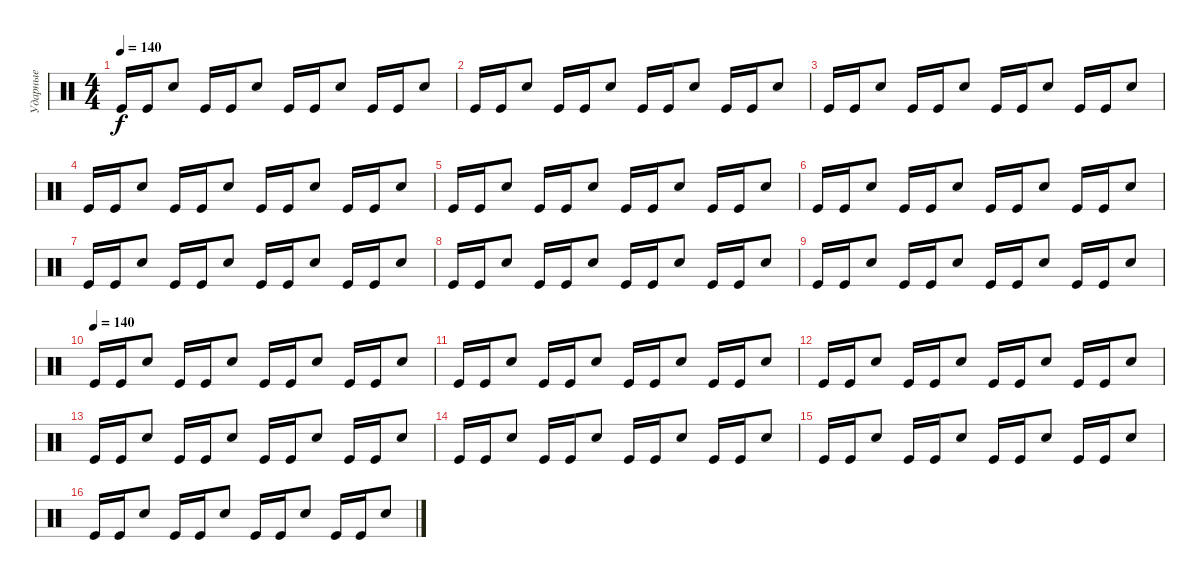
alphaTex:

\track ("Ударные" "Ударные") {instrument percussion}
\staff {score}
\articulation defaults
\ts (4 4)
\tempo 140
\clef neutral
\ks c "Kick (hit)".16{dy f} "Kick (hit)".16 "Electric Snare (hit)".8 "Kick (hit)".16 "Kick (hit)".16 "Electric Snare (hit)".8 "Kick (hit)".16 "Kick (hit)".16 "Electric Snare (hit)".8 "Kick (hit)".16 "Kick (hit)".16 "Electric Snare (hit)".8
|
"Kick (hit)".16 "Kick (hit)".16 "Electric Snare (hit)".8 "Kick (hit)".16 "Kick (hit)".16 "Electric Snare (hit)".8 "Kick (hit)".16 "Kick (hit)".16 "Electric Snare (hit)".8 "Kick (hit)".16 "Kick (hit)".16 "Electric Snare (hit)".8 |
"Kick (hit)".16 "Kick (hit)".16 "Electric Snare (hit)".8 "Kick (hit)".16 "Kick (hit)".16 "Electric Snare (hit)".8 "Kick (hit)".16 "Kick (hit)".16 "Electric Snare (hit)".8 "Kick (hit)".16 "Kick (hit)".16 "Electric Snare (hit)".8 |
"Kick (hit)".16 "Kick (hit)".16 "Electric Snare (hit)".8 "Kick (hit)".16 "Kick (hit)".16 "Electric Snare (hit)".8 "Kick (hit)".16 "Kick (hit)".16 "Electric Snare (hit)".8 "Kick (hit)".16 "Kick (hit)".16 "Electric Snare (hit)".8 |
"Kick (hit)".16 "Kick (hit)".16 "Electric Snare (hit)".8 "Kick (hit)".16 "Kick (hit)".16 "Electric Snare (hit)".8 "Kick (hit)".16 "Kick (hit)".16 "Electric Snare (hit)".8 "Kick (hit)".16 "Kick (hit)".16 "Electric Snare (hit)".8 |
"Kick (hit)".16 "Kick (hit)".16 "Electric Snare (hit)".8 "Kick (hit)".16 "Kick (hit)".16 "Electric Snare (hit)".8 "Kick (hit)".16 "Kick (hit)".16 "Electric Snare (hit)".8 "Kick (hit)".16 "Kick (hit)".16 "Electric Snare (hit)".8 |
"Kick (hit)".16 "Kick (hit)".16 "Electric Snare (hit)".8 "Kick (hit)".16 "Kick (hit)".16 "Electric Snare (hit)".8 "Kick (hit)".16 "Kick (hit)".16 "Electric Snare (hit)".8 "Kick (hit)".16 "Kick (hit)".16 "Electric Snare (hit)".8 |
"Kick (hit)".16 "Kick (hit)".16 "Electric Snare (hit)".8 "Kick (hit)".16 "Kick (hit)".16 "Electric Snare (hit)".8 "Kick (hit)".16 "Kick (hit)".16 "Electric Snare (hit)".8 "Kick (hit)".16 "Kick (hit)".16 "Electric Snare (hit)".8 |
"Kick (hit)".16 "Kick (hit)".16 "Electric Snare (hit)".8 "Kick (hit)".16 "Kick (hit)".16 "Electric Snare (hit)".8 "Kick (hit)".16 "Kick (hit)".16 "Electric Snare (hit)".8 "Kick (hit)".16 "Kick (hit)".16 "Electric Snare (hit)".8 |
\tempo (140)
"Kick (hit)".16 "Kick (hit)".16 "Electric Snare (hit)".8 "Kick (hit)".16 "Kick (hit)".16 "Electric Snare (hit)".8 "Kick (hit)".16 "Kick (hit)".16 "Electric Snare (hit)".8 "Kick (hit)".16 "Kick (hit)".16 "Electric Snare (hit)".8 |
"Kick (hit)".16 "Kick (hit)".16 "Electric Snare (hit)".8 "Kick (hit)".16 "Kick (hit)".16 "Electric Snare (hit)".8 "Kick (hit)".16 "Kick (hit)".16 "Electric Snare (hit)".8 "Kick (hit)".16 "Kick (hit)".16 "Electric Snare (hit)".8 |
"Kick (hit)".16 "Kick (hit)".16 "Electric Snare (hit)".8 "Kick (hit)".16 "Kick (hit)".16 "Electric Snare (hit)".8 "Kick (hit)".16 "Kick (hit)".16 "Electric Snare (hit)".8 "Kick (hit)".16 "Kick (hit)".16 "Electric Snare (hit)".8 |
"Kick (hit)".16 "Kick (hit)".16 "Electric Snare (hit)".8 "Kick (hit)".16 "Kick (hit)".16 "Electric Snare (hit)".8 "Kick (hit)".16 "Kick (hit)".16 "Electric Snare (hit)".8 "Kick (hit)".16 "Kick (hit)".16 "Electric Snare (hit)".8 |
"Kick (hit)".16 "Kick (hit)".16 "Electric Snare (hit)".8 "Kick (hit)".16 "Kick (hit)".16 "Electric Snare (hit)".8 "Kick (hit)".16 "Kick (hit)".16 "Electric Snare (hit)".8 "Kick (hit)".16 "Kick (hit)".16 "Electric Snare (hit)".8 |
"Kick (hit)".16 "Kick (hit)".16 "Electric Snare (hit)".8 "Kick (hit)".16 "Kick (hit)".16 "Electric Snare (hit)".8 "Kick (hit)".16 "Kick (hit)".16 "Electric Snare (hit)".8 "Kick (hit)".16 "Kick (hit)".16 "Electric Snare (hit)".8 |
"Kick (hit)".16 "Kick (hit)".16 "Electric Snare (hit)".8 "Kick (hit)".16 "Kick (hit)".16 "Electric Snare (hit)".8 "Kick (hit)".16 "Kick (hit)".16 "Electric Snare (hit)".8 "Kick (hit)".16 "Kick (hit)".16 "Electric Snare (hit)".8
